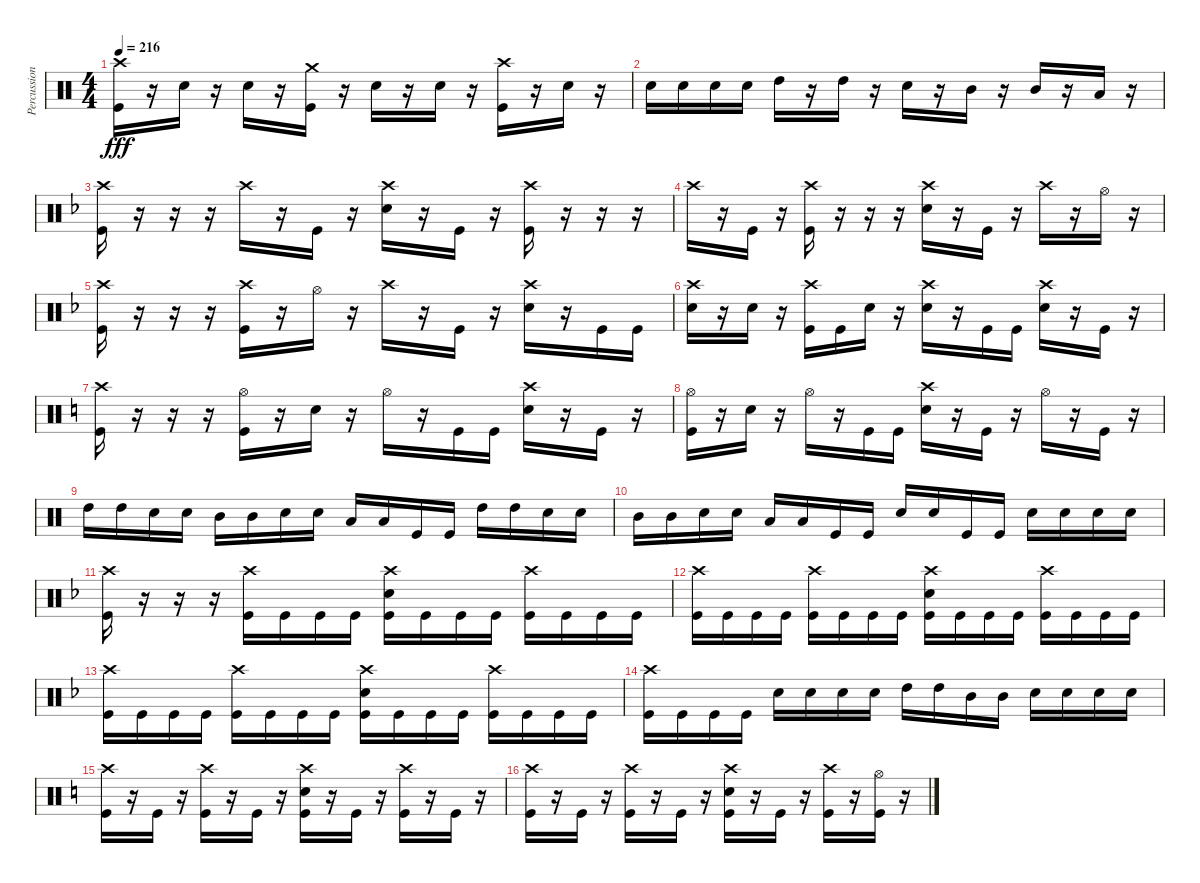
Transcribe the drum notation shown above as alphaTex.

\track ("Percussion" "Percussion") {instrument percussion}
\staff {score}
\articulation defaults
\ts (4 4)
\tempo 216
\clef neutral
\ks c
("Crash high (hit)" "Kick (hit)").16{dy fff} r.16 "Electric Snare (hit)".16 r.16 "Electric Snare (hit)".16 r.16 ("Crash medium (hit)" "Kick (hit)").16 r.16 "Electric Snare (hit)".16 r.16 "Electric Snare (hit)".16 r.16 ("Crash high (hit)" "Kick (hit)").16 r.16 "Electric Snare (hit)".16 r.16 |
"Electric Snare (hit)".16 "Electric Snare (hit)".16 "Electric Snare (hit)".16 "Electric Snare (hit)".16 "High Tom (hit)".16 r.16 "High Tom (hit)".16 r.16 "Electric Snare (hit)".16 r.16 "Mid Tom (hit)".16 r.16 "Mid Tom (hit)".16 r.16 "Low Tom (hit)".16 r.16 |
\ks f
("Crash high (hit)" "Kick (hit)").16 r.16 r.16 r.16 "Crash high (hit)".16 r.16 "Kick (hit)".16 r.16 ("Crash high (hit)" "Electric Snare (hit)").16 r.16 "Kick (hit)".16 r.16 ("Crash high (hit)" "Kick (hit)").16 r.16 r.16 r.16 |
"Crash high (hit)".16 r.16 "Kick (hit)".16 r.16 ("Crash high (hit)" "Kick (hit)").16 r.16 r.16 r.16 ("Crash high (hit)" "Electric Snare (hit)").16 r.16 "Kick (hit)".16 r.16 "Crash high (hit)".16 r.16 "Hi-Hat (open)".16 r.16 |
("Crash high (hit)" "Kick (hit)").16 r.16 r.16 r.16 ("Crash high (hit)" "Kick (hit)").16 r.16 "Hi-Hat (open)".16 r.16 "Crash high (hit)".16 r.16 "Kick (hit)".16 r.16 ("Crash high (hit)" "Electric Snare (hit)").16 r.16 "Kick (hit)".16 "Kick (hit)".16 |
("Crash high (hit)" "Electric Snare (hit)").16 r.16 "Electric Snare (hit)".16 r.16 ("Crash high (hit)" "Kick (hit)").16 "Kick (hit)".16 "Electric Snare (hit)".16 r.16 ("Crash high (hit)" "Electric Snare (hit)").16 r.16 "Kick (hit)".16 "Kick (hit)".16 ("Crash high (hit)" "Electric Snare (hit)").16 r.16 "Kick (hit)".16 r.16 |
\ks c
("Crash high (hit)" "Kick (hit)").16 r.16 r.16 r.16 ("Hi-Hat (open)" "Kick (hit)").16 r.16 "Electric Snare (hit)".16 r.16 "Hi-Hat (open)".16 r.16 "Kick (hit)".16 "Kick (hit)".16 ("Crash high (hit)" "Electric Snare (hit)").16 r.16 "Kick (hit)".16 r.16 |
("Hi-Hat (open)" "Kick (hit)").16 r.16 "Electric Snare (hit)".16 r.16 "Hi-Hat (open)".16 r.16 "Kick (hit)".16 "Kick (hit)".16 ("Crash high (hit)" "Electric Snare (hit)").16 r.16 "Kick (hit)".16 r.16 "Hi-Hat (open)".16 r.16 "Kick (hit)".16 r.16 |
"High Tom (hit)".16 "High Tom (hit)".16 "Electric Snare (hit)".16 "Electric Snare (hit)".16 "Mid Tom (hit)".16 "Mid Tom (hit)".16 "Electric Snare (hit)".16 "Electric Snare (hit)".16 "Low Tom (hit)".16 "Low Tom (hit)".16 "Kick (hit)".16 "Kick (hit)".16 "High Tom (hit)".16 "High Tom (hit)".16 "Electric Snare (hit)".16 "Electric Snare (hit)".16 |
"Mid Tom (hit)".16 "Mid Tom (hit)".16 "Electric Snare (hit)".16 "Electric Snare (hit)".16 "Low Tom (hit)".16 "Low Tom (hit)".16 "Kick (hit)".16 "Kick (hit)".16 "Electric Snare (hit)".16 "Electric Snare (hit)".16 "Kick (hit)".16 "Kick (hit)".16 "Electric Snare (hit)".16 "Electric Snare (hit)".16 "Electric Snare (hit)".16 "Electric Snare (hit)".16 |
\ks f
("Crash high (hit)" "Kick (hit)").16 r.16 r.16 r.16 ("Crash high (hit)" "Kick (hit)").16 "Kick (hit)".16 "Kick (hit)".16 "Kick (hit)".16 ("Crash high (hit)" "Electric Snare (hit)" "Kick (hit)").16 "Kick (hit)".16 "Kick (hit)".16 "Kick (hit)".16 ("Crash high (hit)" "Kick (hit)").16 "Kick (hit)".16 "Kick (hit)".16 "Kick (hit)".16 |
("Crash high (hit)" "Kick (hit)").16 "Kick (hit)".16 "Kick (hit)".16 "Kick (hit)".16 ("Crash high (hit)" "Kick (hit)").16 "Kick (hit)".16 "Kick (hit)".16 "Kick (hit)".16 ("Crash high (hit)" "Electric Snare (hit)" "Kick (hit)").16 "Kick (hit)".16 "Kick (hit)".16 "Kick (hit)".16 ("Crash high (hit)" "Kick (hit)").16 "Kick (hit)".16 "Kick (hit)".16 "Kick (hit)".16 |
("Crash high (hit)" "Kick (hit)").16 "Kick (hit)".16 "Kick (hit)".16 "Kick (hit)".16 ("Crash high (hit)" "Kick (hit)").16 "Kick (hit)".16 "Kick (hit)".16 "Kick (hit)".16 ("Crash high (hit)" "Electric Snare (hit)" "Kick (hit)").16 "Kick (hit)".16 "Kick (hit)".16 "Kick (hit)".16 ("Crash high (hit)" "Kick (hit)").16 "Kick (hit)".16 "Kick (hit)".16 "Kick (hit)".16 |
("Crash high (hit)" "Kick (hit)").16 "Kick (hit)".16 "Kick (hit)".16 "Kick (hit)".16 "Electric Snare (hit)".16 "Electric Snare (hit)".16 "Electric Snare (hit)".16 "Electric Snare (hit)".16 "High Tom (hit)".16 "High Tom (hit)".16 "Mid Tom (hit)".16 "Mid Tom (hit)".16 "Electric Snare (hit)".16 "Electric Snare (hit)".16 "Electric Snare (hit)".16 "Electric Snare (hit)".16 |
\ks c
("Crash high (hit)" "Kick (hit)").16 r.16 "Kick (hit)".16 r.16 ("Crash high (hit)" "Kick (hit)").16 r.16 "Kick (hit)".16 r.16 ("Crash high (hit)" "Electric Snare (hit)" "Kick (hit)").16 r.16 "Kick (hit)".16 r.16 ("Crash high (hit)" "Kick (hit)").16 r.16 "Kick (hit)".16 r.16 |
("Crash high (hit)" "Kick (hit)").16 r.16 "Kick (hit)".16 r.16 ("Crash high (hit)" "Kick (hit)").16 r.16 "Kick (hit)".16 r.16 ("Crash high (hit)" "Electric Snare (hit)" "Kick (hit)").16 r.16 "Kick (hit)".16 r.16 ("Crash high (hit)" "Kick (hit)").16 r.16 ("Hi-Hat (open)" "Kick (hit)").16 r.16
